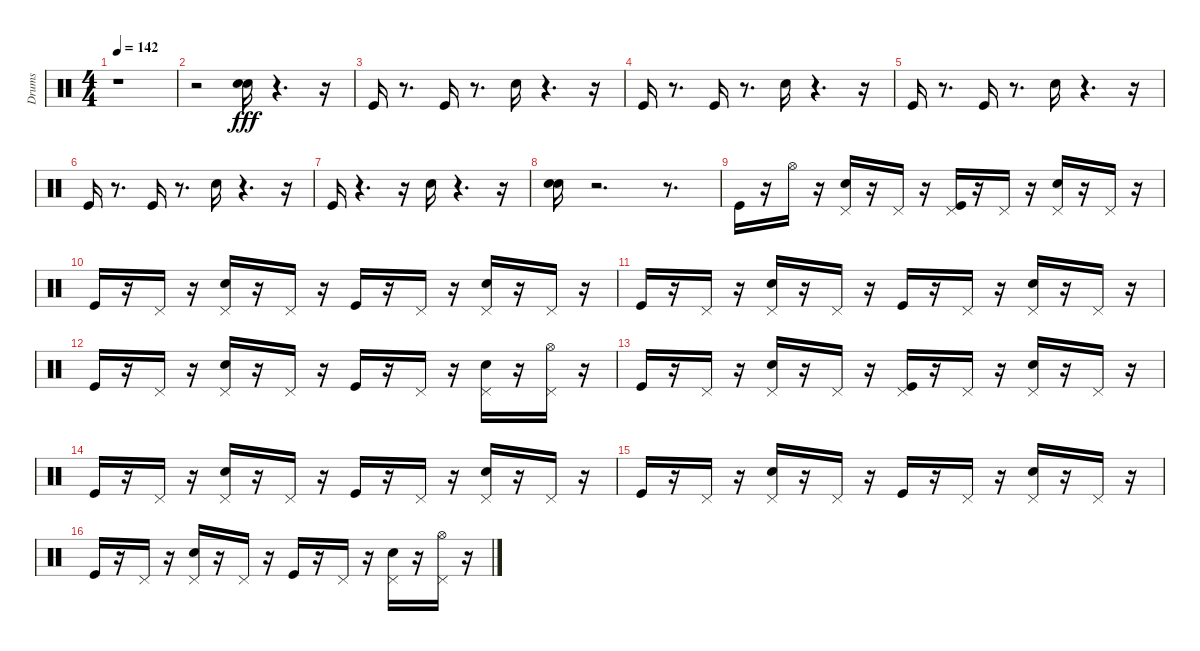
\track ("Drums" "Drums") {instrument percussion}
\staff {score}
\articulation defaults
\ts (4 4)
\tempo 142
\clef neutral
\ks c
r.1{dy fff} |
r.2 ("Snare (hit) 2" "Electric Snare (hit)").16 r.4{d} r.16 |
"Kick (hit)".16 r.8{d} "Kick (hit)".16 r.8{d} "Snare (hit) 2".16 r.4{d} r.16 |
"Kick (hit)".16 r.8{d} "Kick (hit)".16 r.8{d} "Snare (hit) 2".16 r.4{d} r.16 |
"Kick (hit)".16 r.8{d} "Kick (hit)".16 r.8{d} "Snare (hit) 2".16 r.4{d} r.16 |
"Kick (hit)".16 r.8{d} "Kick (hit)".16 r.8{d} "Snare (hit) 2".16 r.4{d} r.16 |
"Kick (hit)".16 r.4{d} r.16 "Snare (hit) 2".16 r.4{d} r.16 |
("Snare (hit) 2" "Electric Snare (hit)").16 r.2{d} r.8{d} |
"Kick (hit)".16 r.16 "Hi-Hat (open)".16 r.16 ("Snare (hit) 2" "Pedal Hi-Hat (hit)").16 r.16 "Pedal Hi-Hat (hit)".16 r.16 ("Kick (hit)" "Pedal Hi-Hat (hit)").16 r.16 "Pedal Hi-Hat (hit)".16 r.16 ("Snare (hit) 2" "Pedal Hi-Hat (hit)").16 r.16 "Pedal Hi-Hat (hit)".16 r.16 |
"Kick (hit)".16 r.16 "Pedal Hi-Hat (hit)".16 r.16 ("Snare (hit) 2" "Pedal Hi-Hat (hit)").16 r.16 "Pedal Hi-Hat (hit)".16 r.16 "Kick (hit)".16 r.16 "Pedal Hi-Hat (hit)".16 r.16 ("Snare (hit) 2" "Pedal Hi-Hat (hit)").16 r.16 "Pedal Hi-Hat (hit)".16 r.16 |
"Kick (hit)".16 r.16 "Pedal Hi-Hat (hit)".16 r.16 ("Snare (hit) 2" "Pedal Hi-Hat (hit)").16 r.16 "Pedal Hi-Hat (hit)".16 r.16 "Kick (hit)".16 r.16 "Pedal Hi-Hat (hit)".16 r.16 ("Snare (hit) 2" "Pedal Hi-Hat (hit)").16 r.16 "Pedal Hi-Hat (hit)".16 r.16 |
"Kick (hit)".16 r.16 "Pedal Hi-Hat (hit)".16 r.16 ("Snare (hit) 2" "Pedal Hi-Hat (hit)").16 r.16 "Pedal Hi-Hat (hit)".16 r.16 "Kick (hit)".16 r.16 "Pedal Hi-Hat (hit)".16 r.16 ("Snare (hit) 2" "Pedal Hi-Hat (hit)").16 r.16 ("Pedal Hi-Hat (hit)" "Hi-Hat (open)").16 r.16 |
"Kick (hit)".16 r.16 "Pedal Hi-Hat (hit)".16 r.16 ("Snare (hit) 2" "Pedal Hi-Hat (hit)").16 r.16 "Pedal Hi-Hat (hit)".16 r.16 ("Kick (hit)" "Pedal Hi-Hat (hit)").16 r.16 "Pedal Hi-Hat (hit)".16 r.16 ("Snare (hit) 2" "Pedal Hi-Hat (hit)").16 r.16 "Pedal Hi-Hat (hit)".16 r.16 |
"Kick (hit)".16 r.16 "Pedal Hi-Hat (hit)".16 r.16 ("Snare (hit) 2" "Pedal Hi-Hat (hit)").16 r.16 "Pedal Hi-Hat (hit)".16 r.16 "Kick (hit)".16 r.16 "Pedal Hi-Hat (hit)".16 r.16 ("Snare (hit) 2" "Pedal Hi-Hat (hit)").16 r.16 "Pedal Hi-Hat (hit)".16 r.16 |
"Kick (hit)".16 r.16 "Pedal Hi-Hat (hit)".16 r.16 ("Snare (hit) 2" "Pedal Hi-Hat (hit)").16 r.16 "Pedal Hi-Hat (hit)".16 r.16 "Kick (hit)".16 r.16 "Pedal Hi-Hat (hit)".16 r.16 ("Snare (hit) 2" "Pedal Hi-Hat (hit)").16 r.16 "Pedal Hi-Hat (hit)".16 r.16 |
"Kick (hit)".16 r.16 "Pedal Hi-Hat (hit)".16 r.16 ("Snare (hit) 2" "Pedal Hi-Hat (hit)").16 r.16 "Pedal Hi-Hat (hit)".16 r.16 "Kick (hit)".16 r.16 "Pedal Hi-Hat (hit)".16 r.16 ("Snare (hit) 2" "Pedal Hi-Hat (hit)").16 r.16 ("Pedal Hi-Hat (hit)" "Hi-Hat (open)").16 r.16
